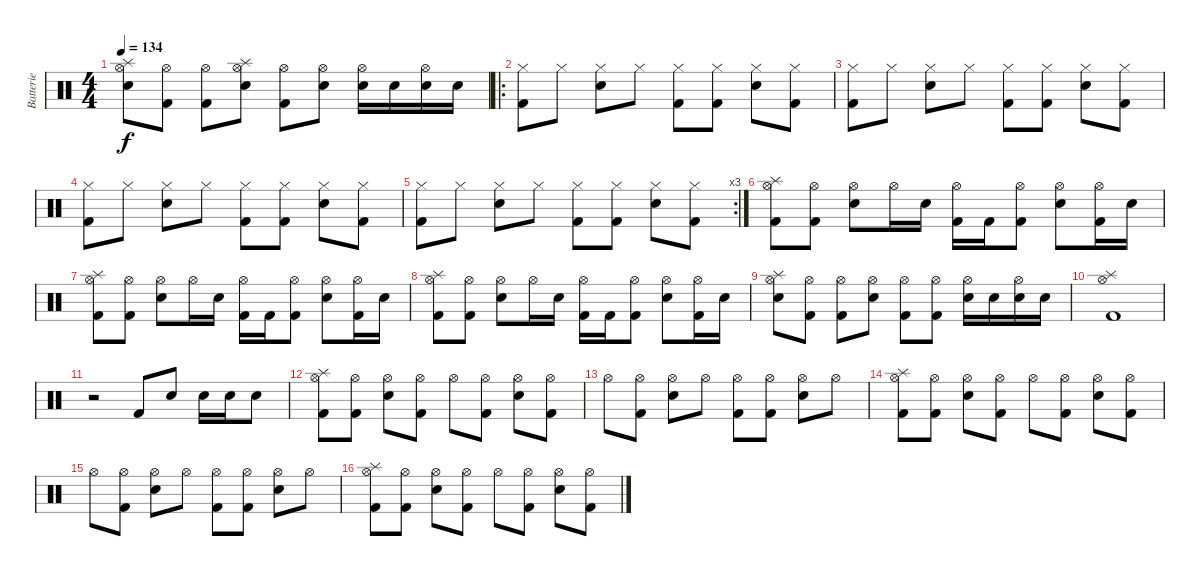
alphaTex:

\track ("Batterie" "Batterie") {instrument percussion}
\staff {score}
\articulation defaults
\ts (4 4)
\tempo 134
\clef neutral
\ks c
("Splash (hit)" "Hi-Hat (open)" "Snare (hit) 2").8{dy f} ("Hi-Hat (open)" "Kick (hit) 2").8 ("Hi-Hat (open)" "Kick (hit) 2").8 ("Splash (hit)" "Hi-Hat (open)" "Snare (hit) 2").8 ("Hi-Hat (open)" "Kick (hit) 2").8 ("Hi-Hat (open)" "Snare (hit) 2").8 ("Hi-Hat (open)" "Snare (hit) 2").16 "Snare (hit) 2".16 ("Hi-Hat (open)" "Snare (hit) 2").16 "Snare (hit) 2".16 |
\ro
("Hi-Hat (closed)" "Kick (hit) 2").8 "Hi-Hat (closed)".8 ("Hi-Hat (closed)" "Snare (hit) 2").8 "Hi-Hat (closed)".8 ("Hi-Hat (closed)" "Kick (hit) 2").8 ("Hi-Hat (closed)" "Kick (hit) 2").8 ("Hi-Hat (closed)" "Snare (hit) 2").8 ("Hi-Hat (closed)" "Kick (hit) 2").8 |
("Hi-Hat (closed)" "Kick (hit) 2").8 "Hi-Hat (closed)".8 ("Hi-Hat (closed)" "Snare (hit) 2").8 "Hi-Hat (closed)".8 ("Hi-Hat (closed)" "Kick (hit) 2").8 ("Hi-Hat (closed)" "Kick (hit) 2").8 ("Hi-Hat (closed)" "Snare (hit) 2").8 ("Hi-Hat (closed)" "Kick (hit) 2").8 |
("Hi-Hat (closed)" "Kick (hit) 2").8 "Hi-Hat (closed)".8 ("Hi-Hat (closed)" "Snare (hit) 2").8 "Hi-Hat (closed)".8 ("Hi-Hat (closed)" "Kick (hit) 2").8 ("Hi-Hat (closed)" "Kick (hit) 2").8 ("Hi-Hat (closed)" "Snare (hit) 2").8 ("Hi-Hat (closed)" "Kick (hit) 2").8 |
\rc 3
("Hi-Hat (closed)" "Kick (hit) 2").8 "Hi-Hat (closed)".8 ("Hi-Hat (closed)" "Snare (hit) 2").8 "Hi-Hat (closed)".8 ("Hi-Hat (closed)" "Kick (hit) 2").8 ("Hi-Hat (closed)" "Kick (hit) 2").8 ("Hi-Hat (closed)" "Snare (hit) 2").8 ("Hi-Hat (closed)" "Kick (hit) 2").8 |
("Splash (hit)" "Hi-Hat (open)" "Kick (hit) 2").8 ("Hi-Hat (open)" "Kick (hit) 2").8 ("Hi-Hat (open)" "Snare (hit) 2").8 "Hi-Hat (open)".16 "Snare (hit) 2".16 ("Hi-Hat (open)" "Kick (hit) 2").16 "Kick (hit) 2".16 ("Hi-Hat (open)" "Kick (hit) 2").8 ("Hi-Hat (open)" "Snare (hit) 2").8 ("Hi-Hat (open)" "Kick (hit) 2").16 "Snare (hit) 2".16 |
("Splash (hit)" "Hi-Hat (open)" "Kick (hit) 2").8 ("Hi-Hat (open)" "Kick (hit) 2").8 ("Hi-Hat (open)" "Snare (hit) 2").8 "Hi-Hat (open)".16 "Snare (hit) 2".16 ("Hi-Hat (open)" "Kick (hit) 2").16 "Kick (hit) 2".16 ("Hi-Hat (open)" "Kick (hit) 2").8 ("Hi-Hat (open)" "Snare (hit) 2").8 ("Hi-Hat (open)" "Kick (hit) 2").16 "Snare (hit) 2".16 |
("Splash (hit)" "Hi-Hat (open)" "Kick (hit) 2").8 ("Hi-Hat (open)" "Kick (hit) 2").8 ("Hi-Hat (open)" "Snare (hit) 2").8 "Hi-Hat (open)".16 "Snare (hit) 2".16 ("Hi-Hat (open)" "Kick (hit) 2").16 "Kick (hit) 2".16 ("Hi-Hat (open)" "Kick (hit) 2").8 ("Hi-Hat (open)" "Snare (hit) 2").8 ("Hi-Hat (open)" "Kick (hit) 2").16 "Snare (hit) 2".16 |
("Splash (hit)" "Hi-Hat (open)" "Snare (hit) 2").8 ("Hi-Hat (open)" "Kick (hit) 2").8 ("Hi-Hat (open)" "Kick (hit) 2").8 ("Hi-Hat (open)" "Snare (hit) 2").8 ("Hi-Hat (open)" "Kick (hit) 2").8 ("Hi-Hat (open)" "Kick (hit) 2").8 ("Hi-Hat (open)" "Snare (hit) 2").16 "Snare (hit) 2".16 ("Hi-Hat (open)" "Snare (hit) 2").16 "Snare (hit) 2".16 |
("Splash (hit)" "Hi-Hat (open)" "Kick (hit) 2").1 |
r.2 "Kick (hit) 2".8 "Snare (hit) 2".8 "Snare (hit) 2".16 "Snare (hit) 2".16 "Snare (hit) 2".8 |
("Splash (hit)" "Hi-Hat (open)" "Kick (hit) 2").8 ("Hi-Hat (open)" "Kick (hit) 2").8 ("Hi-Hat (open)" "Snare (hit) 2").8 ("Hi-Hat (open)" "Kick (hit) 2").8 "Hi-Hat (open)".8 ("Hi-Hat (open)" "Kick (hit) 2").8 ("Hi-Hat (open)" "Snare (hit) 2").8 ("Hi-Hat (open)" "Kick (hit) 2").8 |
"Hi-Hat (open)".8 ("Hi-Hat (open)" "Kick (hit) 2").8 ("Hi-Hat (open)" "Snare (hit) 2").8 "Hi-Hat (open)".8 ("Hi-Hat (open)" "Kick (hit) 2").8 ("Hi-Hat (open)" "Kick (hit) 2").8 ("Hi-Hat (open)" "Snare (hit) 2").8 "Hi-Hat (open)".8 |
("Splash (hit)" "Hi-Hat (open)" "Kick (hit) 2").8 ("Hi-Hat (open)" "Kick (hit) 2").8 ("Hi-Hat (open)" "Snare (hit) 2").8 ("Hi-Hat (open)" "Kick (hit) 2").8 "Hi-Hat (open)".8 ("Hi-Hat (open)" "Kick (hit) 2").8 ("Hi-Hat (open)" "Snare (hit) 2").8 ("Hi-Hat (open)" "Kick (hit) 2").8 |
"Hi-Hat (open)".8 ("Hi-Hat (open)" "Kick (hit) 2").8 ("Hi-Hat (open)" "Snare (hit) 2").8 "Hi-Hat (open)".8 ("Hi-Hat (open)" "Kick (hit) 2").8 ("Hi-Hat (open)" "Kick (hit) 2").8 ("Hi-Hat (open)" "Snare (hit) 2").8 "Hi-Hat (open)".8 |
("Splash (hit)" "Hi-Hat (open)" "Kick (hit) 2").8 ("Hi-Hat (open)" "Kick (hit) 2").8 ("Hi-Hat (open)" "Snare (hit) 2").8 ("Hi-Hat (open)" "Kick (hit) 2").8 "Hi-Hat (open)".8 ("Hi-Hat (open)" "Kick (hit) 2").8 ("Hi-Hat (open)" "Snare (hit) 2").8 ("Hi-Hat (open)" "Kick (hit) 2").8
